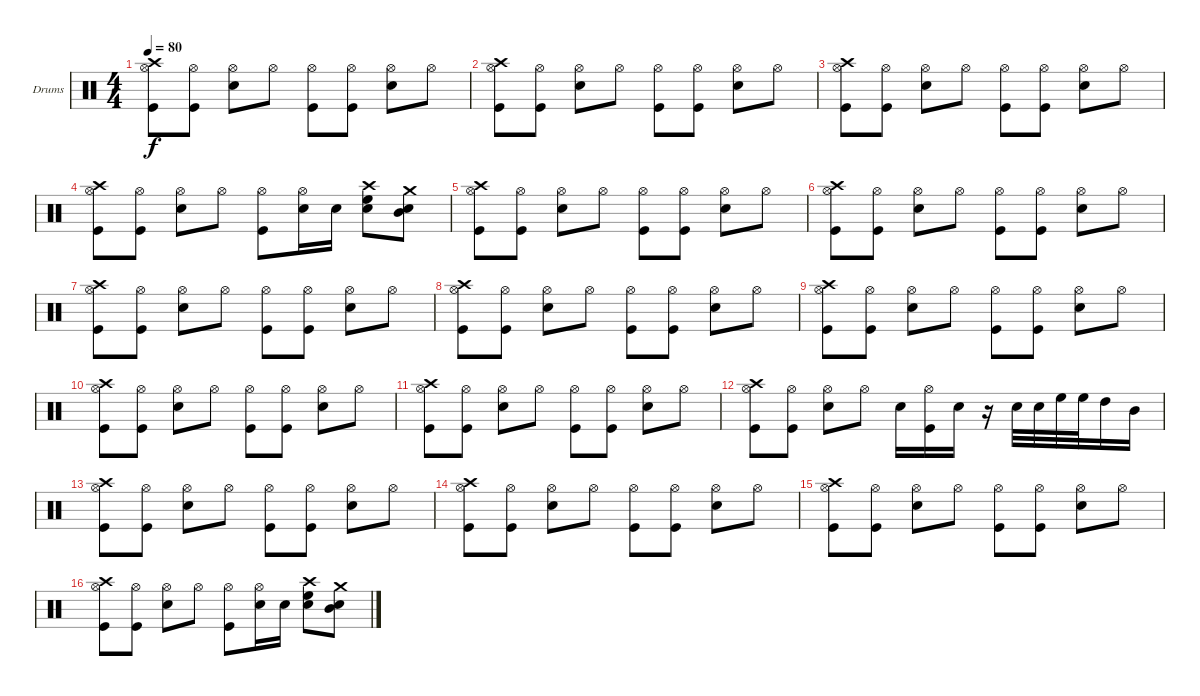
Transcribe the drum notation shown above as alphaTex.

\bracketExtendMode groupsimilarinstruments
\firstSystemTrackNameOrientation horizontal
\otherSystemsTrackNameOrientation horizontal
\track ("Drumkit" "Drums") {instrument percussion}
\staff {score}
\articulation defaults
\ts (4 4)
\tempo 80
\clef neutral
\ks c
("Hi-Hat (open)" "Crash high (hit)" "Kick (hit)").8{dy f} ("Hi-Hat (open)" "Kick (hit)").8 ("Hi-Hat (open)" "Snare (hit) 2").8 "Hi-Hat (open)".8 ("Hi-Hat (open)" "Kick (hit)").8 ("Hi-Hat (open)" "Kick (hit)").8 ("Hi-Hat (open)" "Snare (hit) 2").8 "Hi-Hat (open)".8 |
("Hi-Hat (open)" "Crash high (hit)" "Kick (hit)").8 ("Hi-Hat (open)" "Kick (hit)").8 ("Hi-Hat (open)" "Snare (hit) 2").8 "Hi-Hat (open)".8 ("Hi-Hat (open)" "Kick (hit)").8 ("Hi-Hat (open)" "Kick (hit)").8 ("Hi-Hat (open)" "Snare (hit) 2").8 "Hi-Hat (open)".8 |
("Hi-Hat (open)" "Crash high (hit)" "Kick (hit)").8 ("Hi-Hat (open)" "Kick (hit)").8 ("Hi-Hat (open)" "Snare (hit) 2").8 "Hi-Hat (open)".8 ("Hi-Hat (open)" "Kick (hit)").8 ("Hi-Hat (open)" "Kick (hit)").8 ("Hi-Hat (open)" "Snare (hit) 2").8 "Hi-Hat (open)".8 |
("Hi-Hat (open)" "Crash high (hit)" "Kick (hit)").8 ("Hi-Hat (open)" "Kick (hit)").8 ("Hi-Hat (open)" "Snare (hit) 2").8 "Hi-Hat (open)".8 ("Hi-Hat (open)" "Kick (hit)").8 ("Hi-Hat (open)" "Snare (hit) 2").16 "Snare (hit) 2".16 ("Crash high (hit)" "High Floor Tom (hit)" "Snare (hit) 2").8 ("Crash medium (hit)" "Mid Tom (hit)" "Snare (hit) 2").8 |
("Hi-Hat (open)" "Crash high (hit)" "Kick (hit)").8 ("Hi-Hat (open)" "Kick (hit)").8 ("Hi-Hat (open)" "Snare (hit) 2").8 "Hi-Hat (open)".8 ("Hi-Hat (open)" "Kick (hit)").8 ("Hi-Hat (open)" "Kick (hit)").8 ("Hi-Hat (open)" "Snare (hit) 2").8 "Hi-Hat (open)".8 |
("Hi-Hat (open)" "Crash high (hit)" "Kick (hit)").8 ("Hi-Hat (open)" "Kick (hit)").8 ("Hi-Hat (open)" "Snare (hit) 2").8 "Hi-Hat (open)".8 ("Hi-Hat (open)" "Kick (hit)").8 ("Hi-Hat (open)" "Kick (hit)").8 ("Hi-Hat (open)" "Snare (hit) 2").8 "Hi-Hat (open)".8 |
("Hi-Hat (open)" "Crash high (hit)" "Kick (hit)").8 ("Hi-Hat (open)" "Kick (hit)").8 ("Hi-Hat (open)" "Snare (hit) 2").8 "Hi-Hat (open)".8 ("Hi-Hat (open)" "Kick (hit)").8 ("Hi-Hat (open)" "Kick (hit)").8 ("Hi-Hat (open)" "Snare (hit) 2").8 "Hi-Hat (open)".8 |
("Hi-Hat (open)" "Crash high (hit)" "Kick (hit)").8 ("Hi-Hat (open)" "Kick (hit)").8 ("Hi-Hat (open)" "Snare (hit) 2").8 "Hi-Hat (open)".8 ("Hi-Hat (open)" "Kick (hit)").8 ("Hi-Hat (open)" "Kick (hit)").8 ("Hi-Hat (open)" "Snare (hit) 2").8 "Hi-Hat (open)".8 |
("Hi-Hat (open)" "Crash high (hit)" "Kick (hit)").8 ("Hi-Hat (open)" "Kick (hit)").8 ("Hi-Hat (open)" "Snare (hit) 2").8 "Hi-Hat (open)".8 ("Hi-Hat (open)" "Kick (hit)").8 ("Hi-Hat (open)" "Kick (hit)").8 ("Hi-Hat (open)" "Snare (hit) 2").8 "Hi-Hat (open)".8 |
("Hi-Hat (open)" "Crash high (hit)" "Kick (hit)").8 ("Hi-Hat (open)" "Kick (hit)").8 ("Hi-Hat (open)" "Snare (hit) 2").8 "Hi-Hat (open)".8 ("Hi-Hat (open)" "Kick (hit)").8 ("Hi-Hat (open)" "Kick (hit)").8 ("Hi-Hat (open)" "Snare (hit) 2").8 "Hi-Hat (open)".8 |
("Hi-Hat (open)" "Crash high (hit)" "Kick (hit)").8 ("Hi-Hat (open)" "Kick (hit)").8 ("Hi-Hat (open)" "Snare (hit) 2").8 "Hi-Hat (open)".8 ("Hi-Hat (open)" "Kick (hit)").8 ("Hi-Hat (open)" "Kick (hit)").8 ("Hi-Hat (open)" "Snare (hit) 2").8 "Hi-Hat (open)".8 |
("Hi-Hat (open)" "Crash high (hit)" "Kick (hit)").8 ("Hi-Hat (open)" "Kick (hit)").8 ("Hi-Hat (open)" "Snare (hit) 2").8 "Hi-Hat (open)".8 "Snare (hit) 2".16 ("Hi-Hat (open)" "Kick (hit)").16 "Snare (hit) 2".16 r.16 "Snare (hit) 2".32 "Snare (hit) 2".32 "High Floor Tom (hit)".32 "High Floor Tom (hit)".32 "High Tom (hit)".16 "Mid Tom (hit)".16 |
("Hi-Hat (open)" "Crash high (hit)" "Kick (hit)").8 ("Hi-Hat (open)" "Kick (hit)").8 ("Hi-Hat (open)" "Snare (hit) 2").8 "Hi-Hat (open)".8 ("Hi-Hat (open)" "Kick (hit)").8 ("Hi-Hat (open)" "Kick (hit)").8 ("Hi-Hat (open)" "Snare (hit) 2").8 "Hi-Hat (open)".8 |
("Hi-Hat (open)" "Crash high (hit)" "Kick (hit)").8 ("Hi-Hat (open)" "Kick (hit)").8 ("Hi-Hat (open)" "Snare (hit) 2").8 "Hi-Hat (open)".8 ("Hi-Hat (open)" "Kick (hit)").8 ("Hi-Hat (open)" "Kick (hit)").8 ("Hi-Hat (open)" "Snare (hit) 2").8 "Hi-Hat (open)".8 |
("Hi-Hat (open)" "Crash high (hit)" "Kick (hit)").8 ("Hi-Hat (open)" "Kick (hit)").8 ("Hi-Hat (open)" "Snare (hit) 2").8 "Hi-Hat (open)".8 ("Hi-Hat (open)" "Kick (hit)").8 ("Hi-Hat (open)" "Kick (hit)").8 ("Hi-Hat (open)" "Snare (hit) 2").8 "Hi-Hat (open)".8 |
("Hi-Hat (open)" "Crash high (hit)" "Kick (hit)").8 ("Hi-Hat (open)" "Kick (hit)").8 ("Hi-Hat (open)" "Snare (hit) 2").8 "Hi-Hat (open)".8 ("Hi-Hat (open)" "Kick (hit)").8 ("Hi-Hat (open)" "Snare (hit) 2").16 "Snare (hit) 2".16 ("Crash high (hit)" "High Floor Tom (hit)" "Snare (hit) 2").8 ("Crash medium (hit)" "Mid Tom (hit)" "Snare (hit) 2").8
